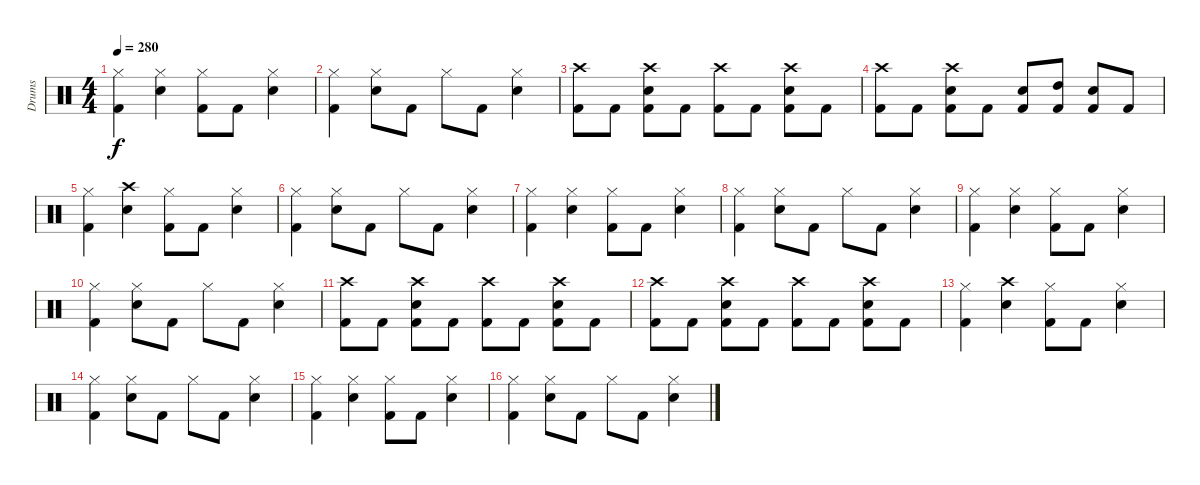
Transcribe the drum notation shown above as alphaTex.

\track ("Drums" "Drums") {instrument percussion}
\staff {score}
\articulation defaults
\ts (4 4)
\tempo 280
\clef neutral
\ks c
("Hi-Hat (closed)" "Kick (hit) 2").4{dy f} ("Hi-Hat (closed)" "Snare (hit) 2").4 ("Hi-Hat (closed)" "Kick (hit) 2").8 "Kick (hit) 2".8 ("Hi-Hat (closed)" "Snare (hit) 2").4 |
("Hi-Hat (closed)" "Kick (hit) 2").4 ("Hi-Hat (closed)" "Snare (hit) 2").8 "Kick (hit) 2".8 "Hi-Hat (closed)".8 "Kick (hit) 2".8 ("Hi-Hat (closed)" "Snare (hit) 2").4 |
("Crash high (hit)" "Kick (hit) 2").8 "Kick (hit) 2".8 ("Crash high (hit)" "Snare (hit) 2" "Kick (hit) 2").8 "Kick (hit) 2".8 ("Crash high (hit)" "Kick (hit) 2").8 "Kick (hit) 2".8 ("Crash high (hit)" "Snare (hit) 2" "Kick (hit) 2").8 "Kick (hit) 2".8 |
("Crash high (hit)" "Kick (hit) 2").8 "Kick (hit) 2".8 ("Crash high (hit)" "Snare (hit) 2" "Kick (hit) 2").8 "Kick (hit) 2".8 ("Snare (hit) 2" "Kick (hit) 2").8 ("High Tom (hit)" "Kick (hit) 2").8 ("Snare (hit) 2" "Kick (hit) 2").8 "Kick (hit) 2".8 |
("Hi-Hat (closed)" "Kick (hit) 2").4 ("Crash high (hit)" "Snare (hit) 2").4 ("Hi-Hat (closed)" "Kick (hit) 2").8 "Kick (hit) 2".8 ("Hi-Hat (closed)" "Snare (hit) 2").4 |
("Hi-Hat (closed)" "Kick (hit) 2").4 ("Hi-Hat (closed)" "Snare (hit) 2").8 "Kick (hit) 2".8 "Hi-Hat (closed)".8 "Kick (hit) 2".8 ("Hi-Hat (closed)" "Snare (hit) 2").4 |
("Hi-Hat (closed)" "Kick (hit) 2").4 ("Hi-Hat (closed)" "Snare (hit) 2").4 ("Hi-Hat (closed)" "Kick (hit) 2").8 "Kick (hit) 2".8 ("Hi-Hat (closed)" "Snare (hit) 2").4 |
("Hi-Hat (closed)" "Kick (hit) 2").4 ("Hi-Hat (closed)" "Snare (hit) 2").8 "Kick (hit) 2".8 "Hi-Hat (closed)".8 "Kick (hit) 2".8 ("Hi-Hat (closed)" "Snare (hit) 2").4 |
("Hi-Hat (closed)" "Kick (hit) 2").4 ("Hi-Hat (closed)" "Snare (hit) 2").4 ("Hi-Hat (closed)" "Kick (hit) 2").8 "Kick (hit) 2".8 ("Hi-Hat (closed)" "Snare (hit) 2").4 |
("Hi-Hat (closed)" "Kick (hit) 2").4 ("Hi-Hat (closed)" "Snare (hit) 2").8 "Kick (hit) 2".8 "Hi-Hat (closed)".8 "Kick (hit) 2".8 ("Hi-Hat (closed)" "Snare (hit) 2").4 |
("Crash high (hit)" "Kick (hit) 2").8 "Kick (hit) 2".8 ("Crash high (hit)" "Snare (hit) 2" "Kick (hit) 2").8 "Kick (hit) 2".8 ("Crash high (hit)" "Kick (hit) 2").8 "Kick (hit) 2".8 ("Crash high (hit)" "Snare (hit) 2" "Kick (hit) 2").8 "Kick (hit) 2".8 |
("Crash high (hit)" "Kick (hit) 2").8 "Kick (hit) 2".8 ("Crash high (hit)" "Snare (hit) 2" "Kick (hit) 2").8 "Kick (hit) 2".8 ("Crash high (hit)" "Kick (hit) 2").8 "Kick (hit) 2".8 ("Crash high (hit)" "Snare (hit) 2" "Kick (hit) 2").8 "Kick (hit) 2".8 |
("Hi-Hat (closed)" "Kick (hit) 2").4 ("Crash high (hit)" "Snare (hit) 2").4 ("Hi-Hat (closed)" "Kick (hit) 2").8 "Kick (hit) 2".8 ("Hi-Hat (closed)" "Snare (hit) 2").4 |
("Hi-Hat (closed)" "Kick (hit) 2").4 ("Hi-Hat (closed)" "Snare (hit) 2").8 "Kick (hit) 2".8 "Hi-Hat (closed)".8 "Kick (hit) 2".8 ("Hi-Hat (closed)" "Snare (hit) 2").4 |
("Hi-Hat (closed)" "Kick (hit) 2").4 ("Hi-Hat (closed)" "Snare (hit) 2").4 ("Hi-Hat (closed)" "Kick (hit) 2").8 "Kick (hit) 2".8 ("Hi-Hat (closed)" "Snare (hit) 2").4 |
("Hi-Hat (closed)" "Kick (hit) 2").4 ("Hi-Hat (closed)" "Snare (hit) 2").8 "Kick (hit) 2".8 "Hi-Hat (closed)".8 "Kick (hit) 2".8 ("Hi-Hat (closed)" "Snare (hit) 2").4
